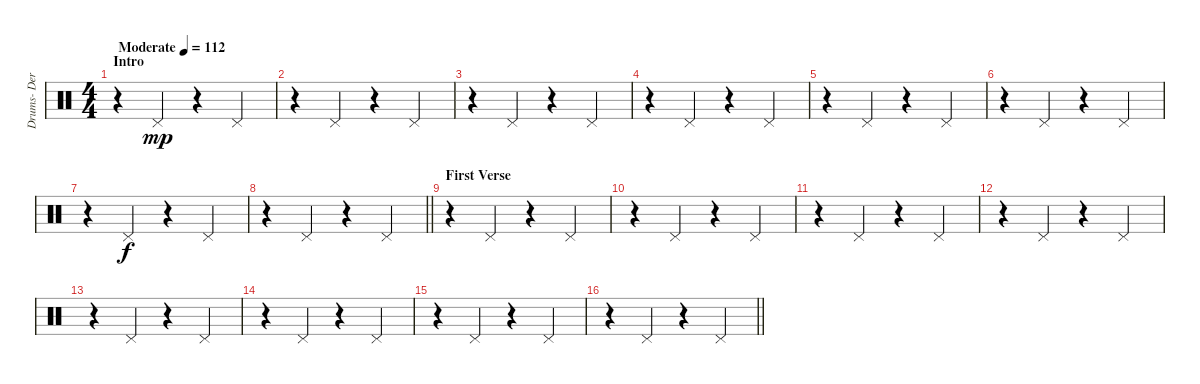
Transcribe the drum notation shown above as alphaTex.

\track ("Drums- Derek Grant" "Drums- Der") {instrument percussion}
\staff {score}
\articulation defaults
\ts (4 4)
\section ("" "Intro")
\tempo (112 "Moderate")
\clef neutral
\ks c
r.4{dy mp} "Pedal Hi-Hat (hit)".4 r.4 "Pedal Hi-Hat (hit)".4 |
r.4 "Pedal Hi-Hat (hit)".4 r.4 "Pedal Hi-Hat (hit)".4 |
r.4 "Pedal Hi-Hat (hit)".4 r.4 "Pedal Hi-Hat (hit)".4 |
r.4 "Pedal Hi-Hat (hit)".4 r.4 "Pedal Hi-Hat (hit)".4 |
r.4 "Pedal Hi-Hat (hit)".4 r.4 "Pedal Hi-Hat (hit)".4 |
r.4 "Pedal Hi-Hat (hit)".4 r.4 "Pedal Hi-Hat (hit)".4 |
r.4 "Pedal Hi-Hat (hit)".4{dy f} r.4 "Pedal Hi-Hat (hit)".4 |
\barLineRight lightlight
r.4 "Pedal Hi-Hat (hit)".4 r.4 "Pedal Hi-Hat (hit)".4 |
\section ("" "First Verse")
r.4 "Pedal Hi-Hat (hit)".4 r.4 "Pedal Hi-Hat (hit)".4 |
r.4 "Pedal Hi-Hat (hit)".4 r.4 "Pedal Hi-Hat (hit)".4 |
r.4 "Pedal Hi-Hat (hit)".4 r.4 "Pedal Hi-Hat (hit)".4 |
r.4 "Pedal Hi-Hat (hit)".4 r.4 "Pedal Hi-Hat (hit)".4 |
r.4 "Pedal Hi-Hat (hit)".4 r.4 "Pedal Hi-Hat (hit)".4 |
r.4 "Pedal Hi-Hat (hit)".4 r.4 "Pedal Hi-Hat (hit)".4 |
r.4 "Pedal Hi-Hat (hit)".4 r.4 "Pedal Hi-Hat (hit)".4 |
\barLineRight lightlight
r.4 "Pedal Hi-Hat (hit)".4 r.4 "Pedal Hi-Hat (hit)".4
